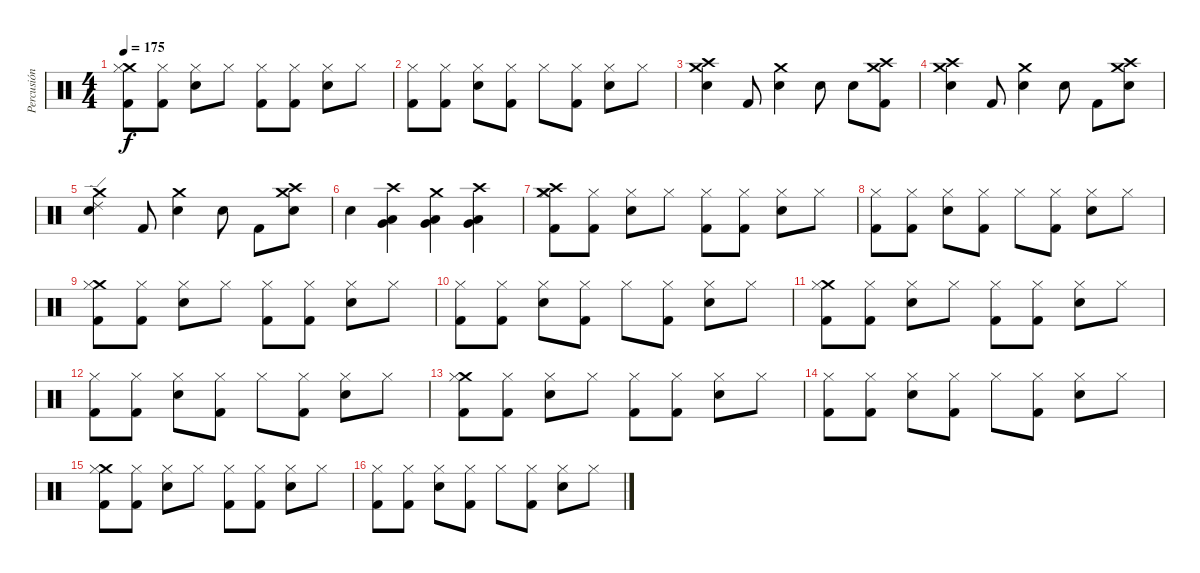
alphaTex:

\track ("Percusión" "Percusión") {instrument percussion}
\staff {score}
\articulation defaults
\ts (4 4)
\tempo 175
\clef neutral
\ks c
("Crash medium (hit)" "Hi-Hat (closed)" "Kick (hit) 2").8{dy f} ("Hi-Hat (closed)" "Kick (hit) 2").8 ("Hi-Hat (closed)" "Snare (hit) 2").8 "Hi-Hat (closed)".8 ("Hi-Hat (closed)" "Kick (hit) 2").8 ("Hi-Hat (closed)" "Kick (hit) 2").8 ("Hi-Hat (closed)" "Snare (hit) 2").8 "Hi-Hat (closed)".8 |
("Hi-Hat (closed)" "Kick (hit) 2").8 ("Hi-Hat (closed)" "Kick (hit) 2").8 ("Hi-Hat (closed)" "Snare (hit) 2").8 ("Hi-Hat (closed)" "Kick (hit) 2").8 "Hi-Hat (closed)".8 ("Hi-Hat (closed)" "Kick (hit) 2").8 ("Hi-Hat (closed)" "Snare (hit) 2").8 "Hi-Hat (closed)".8 |
("Crash high (hit)" "Crash medium (hit)" "Snare (hit) 2").4 "Kick (hit) 2".8 ("Crash medium (hit)" "Snare (hit) 2").4 "Snare (hit) 2".8 "Snare (hit) 2".8 ("Crash high (hit)" "Crash medium (hit)" "Kick (hit) 2").8 |
("Crash high (hit)" "Crash medium (hit)" "Snare (hit) 2").4 "Kick (hit) 2".8 ("Crash medium (hit)" "Snare (hit) 2").4 "Snare (hit) 2".8 "Kick (hit) 2".8 ("Crash high (hit)" "Crash medium (hit)" "Snare (hit) 2").8 |
("Ride (edge) 2" "Crash medium (hit)" "Snare (hit) 2").4 "Kick (hit) 2".8 ("Crash medium (hit)" "Snare (hit) 2").4 "Snare (hit) 2".8 "Kick (hit) 2".8 ("Crash high (hit)" "Crash medium (hit)" "Snare (hit) 2").8 |
"Snare (hit) 2".4 ("Crash high (hit)" "Low Tom (hit)" "Very Low Tom (hit)").4 ("Crash medium (hit)" "Low Tom (hit)" "Very Low Tom (hit)").4 ("Crash high (hit)" "Low Tom (hit)" "Very Low Tom (hit)").4 |
("Crash high (hit)" "Crash medium (hit)" "Hi-Hat (closed)" "Kick (hit) 2").8 ("Hi-Hat (closed)" "Kick (hit) 2").8 ("Hi-Hat (closed)" "Snare (hit) 2").8 "Hi-Hat (closed)".8 ("Hi-Hat (closed)" "Kick (hit) 2").8 ("Hi-Hat (closed)" "Kick (hit) 2").8 ("Hi-Hat (closed)" "Snare (hit) 2").8 "Hi-Hat (closed)".8 |
("Hi-Hat (closed)" "Kick (hit) 2").8 ("Hi-Hat (closed)" "Kick (hit) 2").8 ("Hi-Hat (closed)" "Snare (hit) 2").8 ("Hi-Hat (closed)" "Kick (hit) 2").8 "Hi-Hat (closed)".8 ("Hi-Hat (closed)" "Kick (hit) 2").8 ("Hi-Hat (closed)" "Snare (hit) 2").8 "Hi-Hat (closed)".8 |
("Crash medium (hit)" "Hi-Hat (closed)" "Kick (hit) 2").8 ("Hi-Hat (closed)" "Kick (hit) 2").8 ("Hi-Hat (closed)" "Snare (hit) 2").8 "Hi-Hat (closed)".8 ("Hi-Hat (closed)" "Kick (hit) 2").8 ("Hi-Hat (closed)" "Kick (hit) 2").8 ("Hi-Hat (closed)" "Snare (hit) 2").8 "Hi-Hat (closed)".8 |
("Hi-Hat (closed)" "Kick (hit) 2").8 ("Hi-Hat (closed)" "Kick (hit) 2").8 ("Hi-Hat (closed)" "Snare (hit) 2").8 ("Hi-Hat (closed)" "Kick (hit) 2").8 "Hi-Hat (closed)".8 ("Hi-Hat (closed)" "Kick (hit) 2").8 ("Hi-Hat (closed)" "Snare (hit) 2").8 "Hi-Hat (closed)".8 |
("Crash medium (hit)" "Hi-Hat (closed)" "Kick (hit) 2").8 ("Hi-Hat (closed)" "Kick (hit) 2").8 ("Hi-Hat (closed)" "Snare (hit) 2").8 "Hi-Hat (closed)".8 ("Hi-Hat (closed)" "Kick (hit) 2").8 ("Hi-Hat (closed)" "Kick (hit) 2").8 ("Hi-Hat (closed)" "Snare (hit) 2").8 "Hi-Hat (closed)".8 |
("Hi-Hat (closed)" "Kick (hit) 2").8 ("Hi-Hat (closed)" "Kick (hit) 2").8 ("Hi-Hat (closed)" "Snare (hit) 2").8 ("Hi-Hat (closed)" "Kick (hit) 2").8 "Hi-Hat (closed)".8 ("Hi-Hat (closed)" "Kick (hit) 2").8 ("Hi-Hat (closed)" "Snare (hit) 2").8 "Hi-Hat (closed)".8 |
("Crash medium (hit)" "Hi-Hat (closed)" "Kick (hit) 2").8 ("Hi-Hat (closed)" "Kick (hit) 2").8 ("Hi-Hat (closed)" "Snare (hit) 2").8 "Hi-Hat (closed)".8 ("Hi-Hat (closed)" "Kick (hit) 2").8 ("Hi-Hat (closed)" "Kick (hit) 2").8 ("Hi-Hat (closed)" "Snare (hit) 2").8 "Hi-Hat (closed)".8 |
("Hi-Hat (closed)" "Kick (hit) 2").8 ("Hi-Hat (closed)" "Kick (hit) 2").8 ("Hi-Hat (closed)" "Snare (hit) 2").8 ("Hi-Hat (closed)" "Kick (hit) 2").8 "Hi-Hat (closed)".8 ("Hi-Hat (closed)" "Kick (hit) 2").8 ("Hi-Hat (closed)" "Snare (hit) 2").8 "Hi-Hat (closed)".8 |
("Crash medium (hit)" "Hi-Hat (closed)" "Kick (hit) 2").8 ("Hi-Hat (closed)" "Kick (hit) 2").8 ("Hi-Hat (closed)" "Snare (hit) 2").8 "Hi-Hat (closed)".8 ("Hi-Hat (closed)" "Kick (hit) 2").8 ("Hi-Hat (closed)" "Kick (hit) 2").8 ("Hi-Hat (closed)" "Snare (hit) 2").8 "Hi-Hat (closed)".8 |
("Hi-Hat (closed)" "Kick (hit) 2").8 ("Hi-Hat (closed)" "Kick (hit) 2").8 ("Hi-Hat (closed)" "Snare (hit) 2").8 ("Hi-Hat (closed)" "Kick (hit) 2").8 "Hi-Hat (closed)".8 ("Hi-Hat (closed)" "Kick (hit) 2").8 ("Hi-Hat (closed)" "Snare (hit) 2").8 "Hi-Hat (closed)".8
